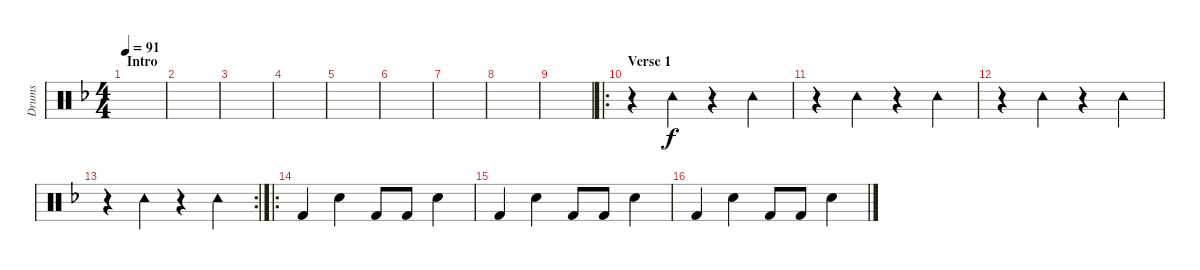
\track ("Drums" "Drums") {instrument percussion}
\staff {score}
\articulation defaults
\ts (4 4)
\section ("" "Intro")
\tempo 91
\clef neutral
\ks f
|
|
|
|
|
|
|
|
|
\ro
\section ("" "Verse 1")
r.4 "Tambourine (hit)".4 r.4 "Tambourine (hit)".4 |
r.4 "Tambourine (hit)".4 r.4 "Tambourine (hit)".4 |
r.4 "Tambourine (hit)".4 r.4 "Tambourine (hit)".4 |
\rc 2
r.4 "Tambourine (hit)".4 r.4 "Tambourine (hit)".4 |
\ro "Kick (hit) 2".4 "Electric Snare (hit)".4 "Kick (hit) 2".8 "Kick (hit) 2".8 "Electric Snare (hit)".4
|
"Kick (hit) 2".4 "Electric Snare (hit)".4 "Kick (hit) 2".8 "Kick (hit) 2".8 "Electric Snare (hit)".4 |
"Kick (hit) 2".4 "Electric Snare (hit)".4 "Kick (hit) 2".8 "Kick (hit) 2".8 "Electric Snare (hit)".4
